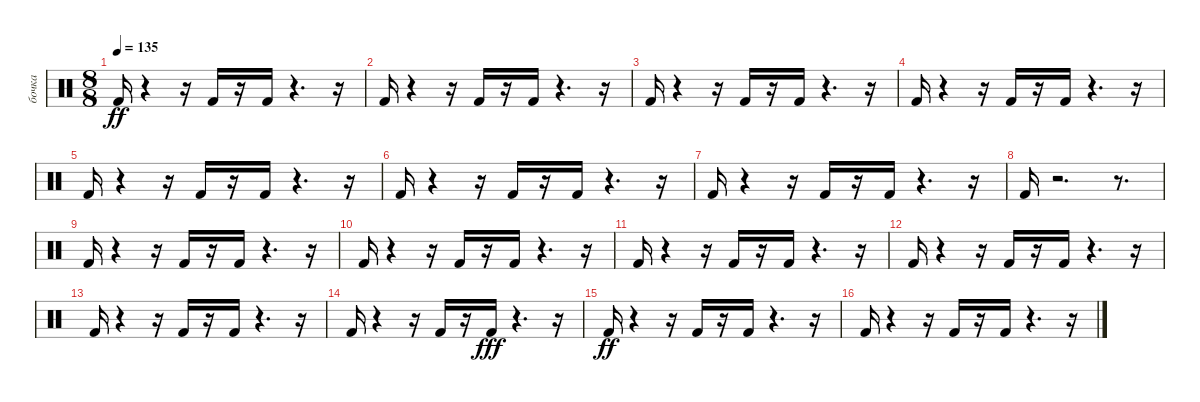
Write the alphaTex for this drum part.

\track ("бочка" "бочка") {instrument percussion}
\staff {score}
\articulation defaults
\ts (8 8)
\tempo 135
\clef neutral
\ks c "Kick (hit) 2".16{dy ff}
r.4 r.16 "Kick (hit) 2".16 r.16 "Kick (hit) 2".16 r.4{d} r.16 |
"Kick (hit) 2".16 r.4 r.16 "Kick (hit) 2".16 r.16 "Kick (hit) 2".16 r.4{d} r.16 |
"Kick (hit) 2".16 r.4 r.16 "Kick (hit) 2".16 r.16 "Kick (hit) 2".16 r.4{d} r.16 |
"Kick (hit) 2".16 r.4 r.16 "Kick (hit) 2".16 r.16 "Kick (hit) 2".16 r.4{d} r.16 |
"Kick (hit) 2".16 r.4 r.16 "Kick (hit) 2".16 r.16 "Kick (hit) 2".16 r.4{d} r.16 |
"Kick (hit) 2".16 r.4 r.16 "Kick (hit) 2".16 r.16 "Kick (hit) 2".16 r.4{d} r.16 |
"Kick (hit) 2".16 r.4 r.16 "Kick (hit) 2".16 r.16 "Kick (hit) 2".16 r.4{d} r.16 |
"Kick (hit) 2".16 r.2{d} r.8{d} |
"Kick (hit) 2".16 r.4 r.16 "Kick (hit) 2".16 r.16 "Kick (hit) 2".16 r.4{d} r.16 |
"Kick (hit) 2".16 r.4 r.16 "Kick (hit) 2".16 r.16 "Kick (hit) 2".16 r.4{d} r.16 |
"Kick (hit) 2".16 r.4 r.16 "Kick (hit) 2".16 r.16 "Kick (hit) 2".16 r.4{d} r.16 |
"Kick (hit) 2".16 r.4 r.16 "Kick (hit) 2".16 r.16 "Kick (hit) 2".16 r.4{d} r.16 |
"Kick (hit) 2".16 r.4 r.16 "Kick (hit) 2".16 r.16 "Kick (hit) 2".16 r.4{d} r.16 |
"Kick (hit) 2".16 r.4 r.16 "Kick (hit) 2".16 r.16 "Kick (hit) 2".16{dy fff} r.4{d} r.16 |
"Kick (hit) 2".16{dy ff} r.4 r.16 "Kick (hit) 2".16 r.16 "Kick (hit) 2".16 r.4{d} r.16 |
"Kick (hit) 2".16 r.4 r.16 "Kick (hit) 2".16 r.16 "Kick (hit) 2".16 r.4{d} r.16
